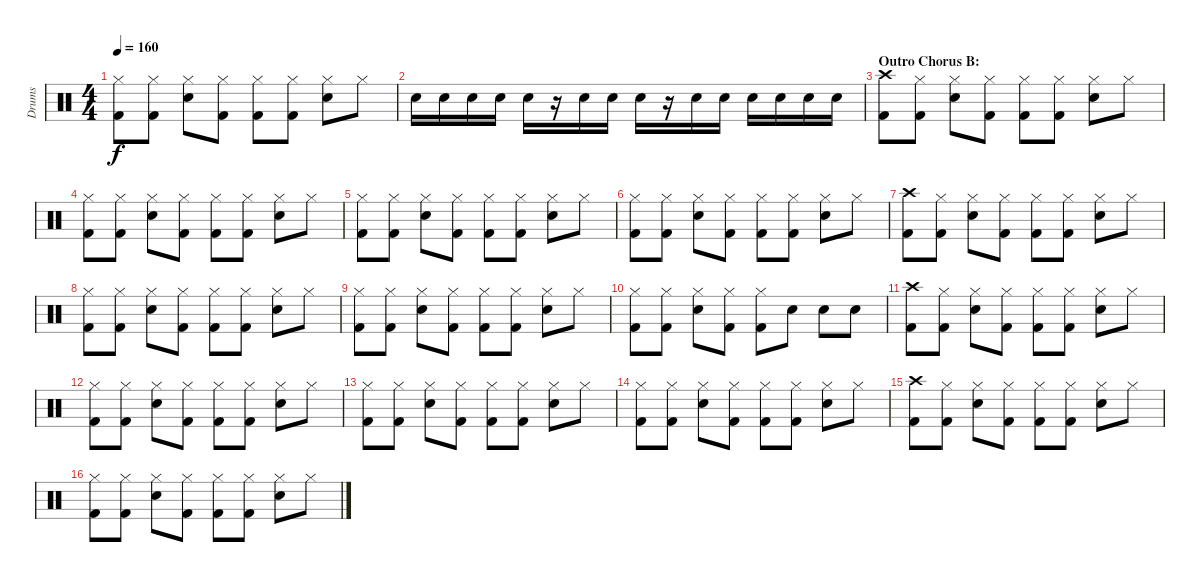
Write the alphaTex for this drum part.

\track ("Drums" "Drums") {instrument percussion}
\staff {score}
\articulation defaults
\ts (4 4)
\tempo 160
\clef neutral
\ks c
("Hi-Hat (closed)" "Kick (hit) 2").8{dy f} ("Hi-Hat (closed)" "Kick (hit) 2").8 ("Hi-Hat (closed)" "Electric Snare (hit)").8 ("Hi-Hat (closed)" "Kick (hit) 2").8 ("Hi-Hat (closed)" "Kick (hit) 2").8 ("Hi-Hat (closed)" "Kick (hit) 2").8 ("Hi-Hat (closed)" "Electric Snare (hit)").8 "Hi-Hat (closed)".8 |
"Electric Snare (hit)".16 "Electric Snare (hit)".16 "Electric Snare (hit)".16 "Electric Snare (hit)".16 "Electric Snare (hit)".16 r.16 "Electric Snare (hit)".16 "Electric Snare (hit)".16 "Electric Snare (hit)".16 r.16 "Electric Snare (hit)".16 "Electric Snare (hit)".16 "Electric Snare (hit)".16 "Electric Snare (hit)".16 "Electric Snare (hit)".16 "Electric Snare (hit)".16 |
\section ("" "Outro Chorus B:")
("Crash high (hit)" "Kick (hit) 2").8 ("Hi-Hat (closed)" "Kick (hit) 2").8 ("Hi-Hat (closed)" "Electric Snare (hit)").8 ("Hi-Hat (closed)" "Kick (hit) 2").8 ("Hi-Hat (closed)" "Kick (hit) 2").8 ("Hi-Hat (closed)" "Kick (hit) 2").8 ("Hi-Hat (closed)" "Electric Snare (hit)").8 "Hi-Hat (closed)".8 |
("Hi-Hat (closed)" "Kick (hit) 2").8 ("Hi-Hat (closed)" "Kick (hit) 2").8 ("Hi-Hat (closed)" "Electric Snare (hit)").8 ("Hi-Hat (closed)" "Kick (hit) 2").8 ("Hi-Hat (closed)" "Kick (hit) 2").8 ("Hi-Hat (closed)" "Kick (hit) 2").8 ("Hi-Hat (closed)" "Electric Snare (hit)").8 "Hi-Hat (closed)".8 |
("Hi-Hat (closed)" "Kick (hit) 2").8 ("Hi-Hat (closed)" "Kick (hit) 2").8 ("Hi-Hat (closed)" "Electric Snare (hit)").8 ("Hi-Hat (closed)" "Kick (hit) 2").8 ("Hi-Hat (closed)" "Kick (hit) 2").8 ("Hi-Hat (closed)" "Kick (hit) 2").8 ("Hi-Hat (closed)" "Electric Snare (hit)").8 "Hi-Hat (closed)".8 |
("Hi-Hat (closed)" "Kick (hit) 2").8 ("Hi-Hat (closed)" "Kick (hit) 2").8 ("Hi-Hat (closed)" "Electric Snare (hit)").8 ("Hi-Hat (closed)" "Kick (hit) 2").8 ("Hi-Hat (closed)" "Kick (hit) 2").8 ("Hi-Hat (closed)" "Kick (hit) 2").8 ("Hi-Hat (closed)" "Electric Snare (hit)").8 "Hi-Hat (closed)".8 |
("Crash high (hit)" "Kick (hit) 2").8 ("Hi-Hat (closed)" "Kick (hit) 2").8 ("Hi-Hat (closed)" "Electric Snare (hit)").8 ("Hi-Hat (closed)" "Kick (hit) 2").8 ("Hi-Hat (closed)" "Kick (hit) 2").8 ("Hi-Hat (closed)" "Kick (hit) 2").8 ("Hi-Hat (closed)" "Electric Snare (hit)").8 "Hi-Hat (closed)".8 |
("Hi-Hat (closed)" "Kick (hit) 2").8 ("Hi-Hat (closed)" "Kick (hit) 2").8 ("Hi-Hat (closed)" "Electric Snare (hit)").8 ("Hi-Hat (closed)" "Kick (hit) 2").8 ("Hi-Hat (closed)" "Kick (hit) 2").8 ("Hi-Hat (closed)" "Kick (hit) 2").8 ("Hi-Hat (closed)" "Electric Snare (hit)").8 "Hi-Hat (closed)".8 |
("Hi-Hat (closed)" "Kick (hit) 2").8 ("Hi-Hat (closed)" "Kick (hit) 2").8 ("Hi-Hat (closed)" "Electric Snare (hit)").8 ("Hi-Hat (closed)" "Kick (hit) 2").8 ("Hi-Hat (closed)" "Kick (hit) 2").8 ("Hi-Hat (closed)" "Kick (hit) 2").8 ("Hi-Hat (closed)" "Electric Snare (hit)").8 "Hi-Hat (closed)".8 |
("Hi-Hat (closed)" "Kick (hit) 2").8 ("Hi-Hat (closed)" "Kick (hit) 2").8 ("Hi-Hat (closed)" "Electric Snare (hit)").8 ("Hi-Hat (closed)" "Kick (hit) 2").8 ("Hi-Hat (closed)" "Kick (hit) 2").8 "Electric Snare (hit)".8 "Electric Snare (hit)".8 "Electric Snare (hit)".8 |
("Crash high (hit)" "Kick (hit) 2").8{volume 6} ("Hi-Hat (closed)" "Kick (hit) 2").8 ("Hi-Hat (closed)" "Electric Snare (hit)").8 ("Hi-Hat (closed)" "Kick (hit) 2").8 ("Hi-Hat (closed)" "Kick (hit) 2").8 ("Hi-Hat (closed)" "Kick (hit) 2").8 ("Hi-Hat (closed)" "Electric Snare (hit)").8 "Hi-Hat (closed)".8 |
("Hi-Hat (closed)" "Kick (hit) 2").8 ("Hi-Hat (closed)" "Kick (hit) 2").8 ("Hi-Hat (closed)" "Electric Snare (hit)").8 ("Hi-Hat (closed)" "Kick (hit) 2").8 ("Hi-Hat (closed)" "Kick (hit) 2").8 ("Hi-Hat (closed)" "Kick (hit) 2").8 ("Hi-Hat (closed)" "Electric Snare (hit)").8 "Hi-Hat (closed)".8 |
("Hi-Hat (closed)" "Kick (hit) 2").8 ("Hi-Hat (closed)" "Kick (hit) 2").8 ("Hi-Hat (closed)" "Electric Snare (hit)").8 ("Hi-Hat (closed)" "Kick (hit) 2").8 ("Hi-Hat (closed)" "Kick (hit) 2").8 ("Hi-Hat (closed)" "Kick (hit) 2").8 ("Hi-Hat (closed)" "Electric Snare (hit)").8 "Hi-Hat (closed)".8 |
("Hi-Hat (closed)" "Kick (hit) 2").8 ("Hi-Hat (closed)" "Kick (hit) 2").8 ("Hi-Hat (closed)" "Electric Snare (hit)").8 ("Hi-Hat (closed)" "Kick (hit) 2").8 ("Hi-Hat (closed)" "Kick (hit) 2").8 ("Hi-Hat (closed)" "Kick (hit) 2").8 ("Hi-Hat (closed)" "Electric Snare (hit)").8 "Hi-Hat (closed)".8 |
("Crash high (hit)" "Kick (hit) 2").8{volume 2} ("Hi-Hat (closed)" "Kick (hit) 2").8 ("Hi-Hat (closed)" "Electric Snare (hit)").8 ("Hi-Hat (closed)" "Kick (hit) 2").8 ("Hi-Hat (closed)" "Kick (hit) 2").8 ("Hi-Hat (closed)" "Kick (hit) 2").8 ("Hi-Hat (closed)" "Electric Snare (hit)").8 "Hi-Hat (closed)".8 |
("Hi-Hat (closed)" "Kick (hit) 2").8 ("Hi-Hat (closed)" "Kick (hit) 2").8 ("Hi-Hat (closed)" "Electric Snare (hit)").8 ("Hi-Hat (closed)" "Kick (hit) 2").8 ("Hi-Hat (closed)" "Kick (hit) 2").8 ("Hi-Hat (closed)" "Kick (hit) 2").8 ("Hi-Hat (closed)" "Electric Snare (hit)").8 "Hi-Hat (closed)".8
